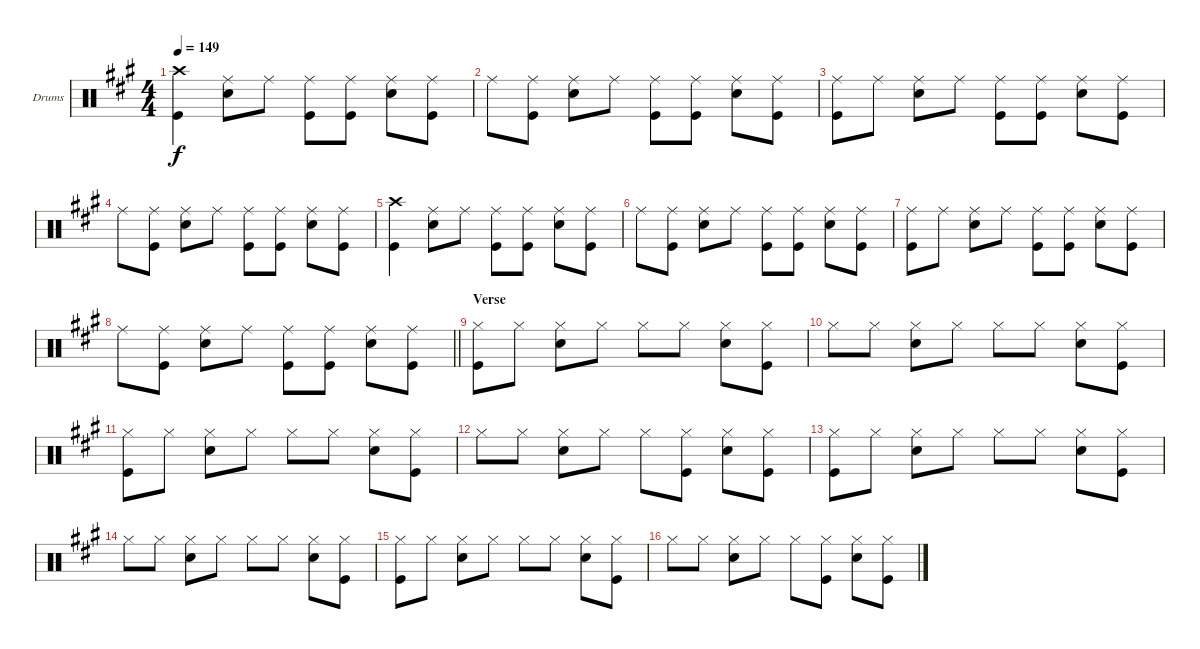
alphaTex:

\defaultSystemsLayout 4
\bracketExtendMode groupsimilarinstruments
\firstSystemTrackNameOrientation horizontal
\otherSystemsTrackNameOrientation horizontal
\track ("Drums" "Drums") {instrument percussion}
\staff {score}
\articulation defaults
\ts (4 4)
\tempo 149
\clef neutral
\ks a
("Kick (hit)" "Crash high (hit)").4{dy f} ("Ride (middle)" "Snare (hit) 2").8 "Ride (middle)".8 ("Ride (middle)" "Kick (hit)").8 ("Ride (middle)" "Kick (hit)").8 ("Ride (middle)" "Snare (hit) 2").8 ("Ride (middle)" "Kick (hit)").8 |
"Ride (middle)".8 ("Ride (middle)" "Kick (hit)").8 ("Ride (middle)" "Snare (hit) 2").8 "Ride (middle)".8 ("Ride (middle)" "Kick (hit)").8 ("Ride (middle)" "Kick (hit)").8 ("Ride (middle)" "Snare (hit) 2").8 ("Ride (middle)" "Kick (hit)").8 |
("Kick (hit)" "Ride (middle)").8 "Ride (middle)".8 ("Ride (middle)" "Snare (hit) 2").8 "Ride (middle)".8 ("Ride (middle)" "Kick (hit)").8 ("Ride (middle)" "Kick (hit)").8 ("Ride (middle)" "Snare (hit) 2").8 ("Ride (middle)" "Kick (hit)").8 |
"Ride (middle)".8 ("Ride (middle)" "Kick (hit)").8 ("Ride (middle)" "Snare (hit) 2").8 "Ride (middle)".8 ("Ride (middle)" "Kick (hit)").8 ("Ride (middle)" "Kick (hit)").8 ("Ride (middle)" "Snare (hit) 2").8 ("Ride (middle)" "Kick (hit)").8 |
("Kick (hit)" "Crash high (hit)").4 ("Ride (middle)" "Snare (hit) 2").8 "Ride (middle)".8 ("Ride (middle)" "Kick (hit)").8 ("Ride (middle)" "Kick (hit)").8 ("Ride (middle)" "Snare (hit) 2").8 ("Ride (middle)" "Kick (hit)").8 |
"Ride (middle)".8 ("Ride (middle)" "Kick (hit)").8 ("Ride (middle)" "Snare (hit) 2").8 "Ride (middle)".8 ("Ride (middle)" "Kick (hit)").8 ("Ride (middle)" "Kick (hit)").8 ("Ride (middle)" "Snare (hit) 2").8 ("Ride (middle)" "Kick (hit)").8 |
("Kick (hit)" "Ride (middle)").8 "Ride (middle)".8 ("Ride (middle)" "Snare (hit) 2").8 "Ride (middle)".8 ("Ride (middle)" "Kick (hit)").8 ("Ride (middle)" "Kick (hit)").8 ("Ride (middle)" "Snare (hit) 2").8 ("Ride (middle)" "Kick (hit)").8 |
\barLineRight lightlight "Ride (middle)".8
("Ride (middle)" "Kick (hit)").8 ("Ride (middle)" "Snare (hit) 2").8 "Ride (middle)".8 ("Ride (middle)" "Kick (hit)").8 ("Ride (middle)" "Kick (hit)").8 ("Ride (middle)" "Snare (hit) 2").8 ("Ride (middle)" "Kick (hit)").8 |
\section ("" "Verse")
("Kick (hit)" "Hi-Hat (closed)").8 "Hi-Hat (closed)".8 ("Hi-Hat (closed)" "Snare (hit) 2").8 "Hi-Hat (closed)".8 "Hi-Hat (closed)".8 "Hi-Hat (closed)".8 ("Hi-Hat (closed)" "Snare (hit) 2").8 ("Hi-Hat (closed)" "Kick (hit)").8 |
"Hi-Hat (closed)".8 "Hi-Hat (closed)".8 ("Hi-Hat (closed)" "Snare (hit) 2").8 "Hi-Hat (closed)".8 "Hi-Hat (closed)".8 "Hi-Hat (closed)".8 ("Hi-Hat (closed)" "Snare (hit) 2").8 ("Hi-Hat (closed)" "Kick (hit)").8 |
("Kick (hit)" "Hi-Hat (closed)").8 "Hi-Hat (closed)".8 ("Hi-Hat (closed)" "Snare (hit) 2").8 "Hi-Hat (closed)".8 "Hi-Hat (closed)".8 "Hi-Hat (closed)".8 ("Hi-Hat (closed)" "Snare (hit) 2").8 ("Hi-Hat (closed)" "Kick (hit)").8 |
"Hi-Hat (closed)".8 "Hi-Hat (closed)".8 ("Hi-Hat (closed)" "Snare (hit) 2").8 "Hi-Hat (closed)".8 "Hi-Hat (closed)".8 ("Hi-Hat (closed)" "Kick (hit)").8 ("Hi-Hat (closed)" "Snare (hit) 2").8 ("Hi-Hat (closed)" "Kick (hit)").8 |
("Kick (hit)" "Hi-Hat (closed)").8 "Hi-Hat (closed)".8 ("Hi-Hat (closed)" "Snare (hit) 2").8 "Hi-Hat (closed)".8 "Hi-Hat (closed)".8 "Hi-Hat (closed)".8 ("Hi-Hat (closed)" "Snare (hit) 2").8 ("Hi-Hat (closed)" "Kick (hit)").8 |
"Hi-Hat (closed)".8 "Hi-Hat (closed)".8 ("Hi-Hat (closed)" "Snare (hit) 2").8 "Hi-Hat (closed)".8 "Hi-Hat (closed)".8 "Hi-Hat (closed)".8 ("Hi-Hat (closed)" "Snare (hit) 2").8 ("Hi-Hat (closed)" "Kick (hit)").8 |
("Kick (hit)" "Hi-Hat (closed)").8 "Hi-Hat (closed)".8 ("Hi-Hat (closed)" "Snare (hit) 2").8 "Hi-Hat (closed)".8 "Hi-Hat (closed)".8 "Hi-Hat (closed)".8 ("Hi-Hat (closed)" "Snare (hit) 2").8 ("Hi-Hat (closed)" "Kick (hit)").8 |
"Hi-Hat (closed)".8 "Hi-Hat (closed)".8 ("Hi-Hat (closed)" "Snare (hit) 2").8 "Hi-Hat (closed)".8 "Hi-Hat (closed)".8 ("Hi-Hat (closed)" "Kick (hit)").8 ("Hi-Hat (closed)" "Snare (hit) 2").8 ("Hi-Hat (closed)" "Kick (hit)").8
